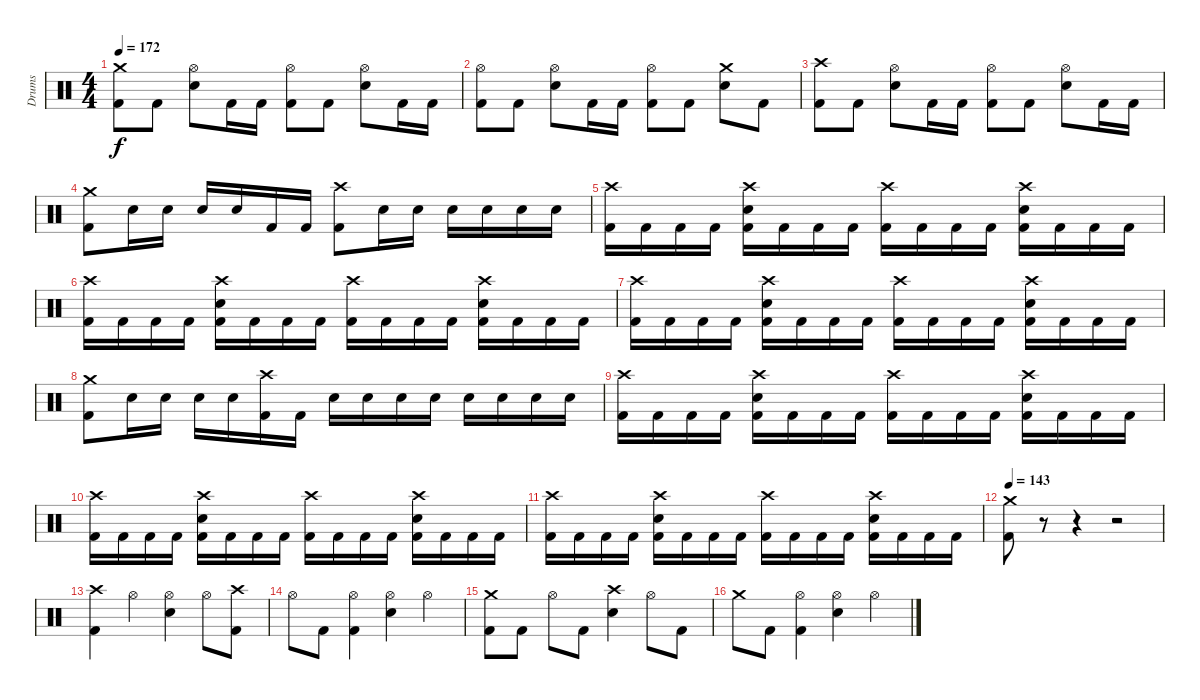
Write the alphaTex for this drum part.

\track ("Drums" "Drums") {instrument percussion}
\staff {score}
\articulation defaults
\ts (4 4)
\tempo 172
\clef neutral
\ks c
("Crash medium (hit)" "Kick (hit) 2").8{dy f} "Kick (hit) 2".8 ("Hi-Hat (open)" "Electric Snare (hit)").8 "Kick (hit) 2".16 "Kick (hit) 2".16 ("Hi-Hat (open)" "Kick (hit) 2").8 "Kick (hit) 2".8 ("Hi-Hat (open)" "Electric Snare (hit)").8 "Kick (hit) 2".16 "Kick (hit) 2".16 |
("Hi-Hat (open)" "Kick (hit) 2").8 "Kick (hit) 2".8 ("Hi-Hat (open)" "Electric Snare (hit)").8 "Kick (hit) 2".16 "Kick (hit) 2".16 ("Hi-Hat (open)" "Kick (hit) 2").8 "Kick (hit) 2".8 ("Crash medium (hit)" "Electric Snare (hit)").8 "Kick (hit) 2".8 |
("Crash high (hit)" "Kick (hit) 2").8 "Kick (hit) 2".8 ("Hi-Hat (open)" "Electric Snare (hit)").8 "Kick (hit) 2".16 "Kick (hit) 2".16 ("Hi-Hat (open)" "Kick (hit) 2").8 "Kick (hit) 2".8 ("Hi-Hat (open)" "Electric Snare (hit)").8 "Kick (hit) 2".16 "Kick (hit) 2".16 |
("Crash medium (hit)" "Kick (hit) 2").8 "Electric Snare (hit)".16 "Electric Snare (hit)".16 "Electric Snare (hit)".16 "Electric Snare (hit)".16 "Kick (hit) 2".16 "Kick (hit) 2".16 ("Crash high (hit)" "Kick (hit) 2").8 "Electric Snare (hit)".16 "Electric Snare (hit)".16 "Electric Snare (hit)".16 "Electric Snare (hit)".16 "Electric Snare (hit)".16 "Electric Snare (hit)".16 |
("Crash high (hit)" "Kick (hit) 2").16 "Kick (hit) 2".16 "Kick (hit) 2".16 "Kick (hit) 2".16 ("Crash high (hit)" "Electric Snare (hit)" "Kick (hit) 2").16 "Kick (hit) 2".16 "Kick (hit) 2".16 "Kick (hit) 2".16 ("Crash high (hit)" "Kick (hit) 2").16 "Kick (hit) 2".16 "Kick (hit) 2".16 "Kick (hit) 2".16 ("Crash high (hit)" "Electric Snare (hit)" "Kick (hit) 2").16 "Kick (hit) 2".16 "Kick (hit) 2".16 "Kick (hit) 2".16 |
("Crash high (hit)" "Kick (hit) 2").16 "Kick (hit) 2".16 "Kick (hit) 2".16 "Kick (hit) 2".16 ("Crash high (hit)" "Electric Snare (hit)" "Kick (hit) 2").16 "Kick (hit) 2".16 "Kick (hit) 2".16 "Kick (hit) 2".16 ("Crash high (hit)" "Kick (hit) 2").16 "Kick (hit) 2".16 "Kick (hit) 2".16 "Kick (hit) 2".16 ("Crash high (hit)" "Electric Snare (hit)" "Kick (hit) 2").16 "Kick (hit) 2".16 "Kick (hit) 2".16 "Kick (hit) 2".16 |
("Crash high (hit)" "Kick (hit) 2").16 "Kick (hit) 2".16 "Kick (hit) 2".16 "Kick (hit) 2".16 ("Crash high (hit)" "Electric Snare (hit)" "Kick (hit) 2").16 "Kick (hit) 2".16 "Kick (hit) 2".16 "Kick (hit) 2".16 ("Crash high (hit)" "Kick (hit) 2").16 "Kick (hit) 2".16 "Kick (hit) 2".16 "Kick (hit) 2".16 ("Crash high (hit)" "Electric Snare (hit)" "Kick (hit) 2").16 "Kick (hit) 2".16 "Kick (hit) 2".16 "Kick (hit) 2".16 |
("Crash medium (hit)" "Kick (hit) 2").8 "Electric Snare (hit)".16 "Electric Snare (hit)".16 "Electric Snare (hit)".16 "Electric Snare (hit)".16 ("Crash high (hit)" "Kick (hit) 2").16 "Kick (hit) 2".16 "Electric Snare (hit)".16 "Electric Snare (hit)".16 "Electric Snare (hit)".16 "Electric Snare (hit)".16 "Electric Snare (hit)".16 "Electric Snare (hit)".16 "Electric Snare (hit)".16 "Electric Snare (hit)".16 |
("Crash high (hit)" "Kick (hit) 2").16 "Kick (hit) 2".16 "Kick (hit) 2".16 "Kick (hit) 2".16 ("Crash high (hit)" "Electric Snare (hit)" "Kick (hit) 2").16 "Kick (hit) 2".16 "Kick (hit) 2".16 "Kick (hit) 2".16 ("Crash high (hit)" "Kick (hit) 2").16 "Kick (hit) 2".16 "Kick (hit) 2".16 "Kick (hit) 2".16 ("Crash high (hit)" "Electric Snare (hit)" "Kick (hit) 2").16 "Kick (hit) 2".16 "Kick (hit) 2".16 "Kick (hit) 2".16 |
("Crash high (hit)" "Kick (hit) 2").16 "Kick (hit) 2".16 "Kick (hit) 2".16 "Kick (hit) 2".16 ("Crash high (hit)" "Electric Snare (hit)" "Kick (hit) 2").16 "Kick (hit) 2".16 "Kick (hit) 2".16 "Kick (hit) 2".16 ("Crash high (hit)" "Kick (hit) 2").16 "Kick (hit) 2".16 "Kick (hit) 2".16 "Kick (hit) 2".16 ("Crash high (hit)" "Electric Snare (hit)" "Kick (hit) 2").16 "Kick (hit) 2".16 "Kick (hit) 2".16 "Kick (hit) 2".16 |
("Crash high (hit)" "Kick (hit) 2").16 "Kick (hit) 2".16 "Kick (hit) 2".16 "Kick (hit) 2".16 ("Crash high (hit)" "Electric Snare (hit)" "Kick (hit) 2").16 "Kick (hit) 2".16 "Kick (hit) 2".16 "Kick (hit) 2".16 ("Crash high (hit)" "Kick (hit) 2").16 "Kick (hit) 2".16 "Kick (hit) 2".16 "Kick (hit) 2".16 ("Crash high (hit)" "Electric Snare (hit)" "Kick (hit) 2").16 "Kick (hit) 2".16 "Kick (hit) 2".16 "Kick (hit) 2".16 |
\tempo 143
("Crash medium (hit)" "Kick (hit) 2").8 r.8 r.4 r.2 |
("Crash high (hit)" "Kick (hit) 2").4 "Hi-Hat (open)".4 ("Hi-Hat (open)" "Electric Snare (hit)").4 "Hi-Hat (open)".8 ("Crash high (hit)" "Kick (hit) 2").8 |
"Hi-Hat (open)".8 "Kick (hit) 2".8 ("Hi-Hat (open)" "Kick (hit) 2").4 ("Hi-Hat (open)" "Electric Snare (hit)").4 "Hi-Hat (open)".4 |
("Crash medium (hit)" "Kick (hit) 2").8 "Kick (hit) 2".8 "Hi-Hat (open)".8 "Kick (hit) 2".8 ("Crash high (hit)" "Electric Snare (hit)").4 "Hi-Hat (open)".8 "Kick (hit) 2".8 |
"Crash medium (hit)".8 "Kick (hit) 2".8 ("Hi-Hat (open)" "Kick (hit) 2").4 ("Hi-Hat (open)" "Electric Snare (hit)").4 "Hi-Hat (open)".4
